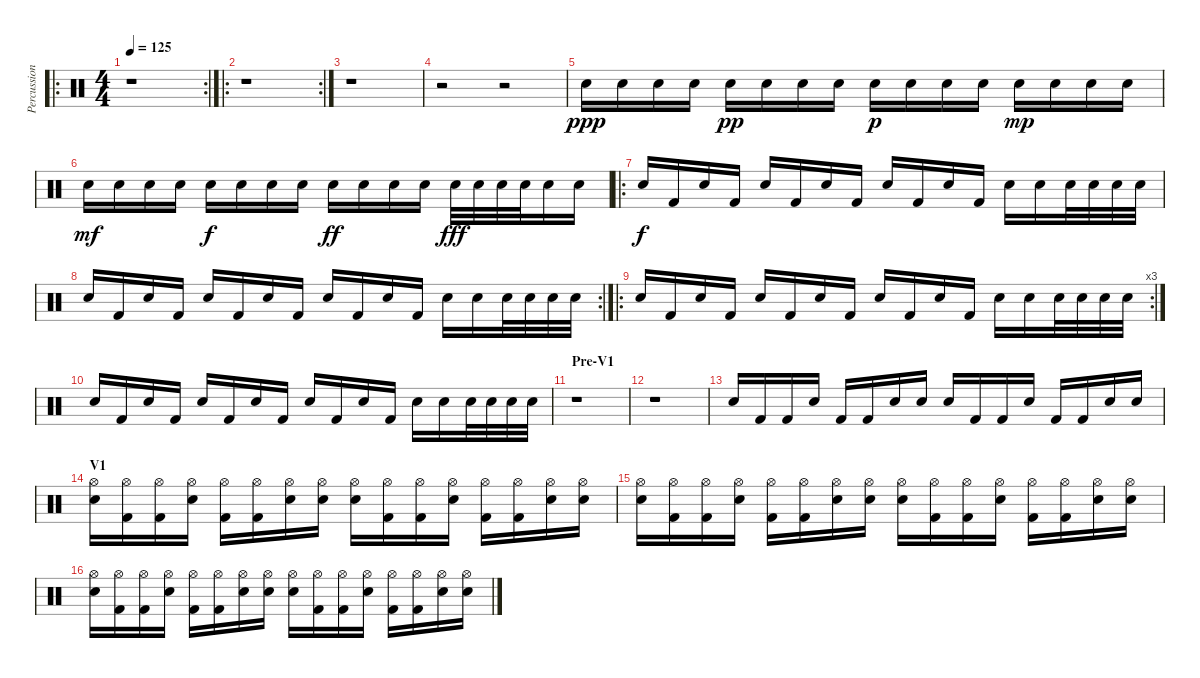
\track ("Percussion" "Percussion") {instrument percussion}
\staff {score}
\articulation defaults
\ro
\rc 2
\ts (4 4)
\tempo 125
\clef neutral
\ks c
r.1{dy ppp} |
\ro
\rc 2
r.1 |
r.1 |
r.2 r.2 |
"Snare (hit) 2".16 "Snare (hit) 2".16 "Snare (hit) 2".16 "Snare (hit) 2".16 "Snare (hit) 2".16{dy pp} "Snare (hit) 2".16 "Snare (hit) 2".16 "Snare (hit) 2".16 "Snare (hit) 2".16{dy p} "Snare (hit) 2".16 "Snare (hit) 2".16 "Snare (hit) 2".16 "Snare (hit) 2".16{dy mp} "Snare (hit) 2".16 "Snare (hit) 2".16 "Snare (hit) 2".16 |
"Snare (hit) 2".16{dy mf} "Snare (hit) 2".16 "Snare (hit) 2".16 "Snare (hit) 2".16 "Snare (hit) 2".16{dy f} "Snare (hit) 2".16 "Snare (hit) 2".16 "Snare (hit) 2".16 "Snare (hit) 2".16{dy ff} "Snare (hit) 2".16 "Snare (hit) 2".16 "Snare (hit) 2".16 "Snare (hit) 2".32{dy fff} "Snare (hit) 2".32 "Snare (hit) 2".32 "Snare (hit) 2".32 "Snare (hit) 2".16 "Snare (hit) 2".16 |
\ro "Snare (hit) 2".16{dy f} "Kick (hit) 2".16 "Snare (hit) 2".16 "Kick (hit) 2".16 "Snare (hit) 2".16 "Kick (hit) 2".16 "Snare (hit) 2".16 "Kick (hit) 2".16 "Snare (hit) 2".16 "Kick (hit) 2".16 "Snare (hit) 2".16 "Kick (hit) 2".16 "Snare (hit) 2".16 "Snare (hit) 2".16 "Snare (hit) 2".32 "Snare (hit) 2".32 "Snare (hit) 2".32 "Snare (hit) 2".32
|
\rc 2 "Snare (hit) 2".16 "Kick (hit) 2".16 "Snare (hit) 2".16 "Kick (hit) 2".16 "Snare (hit) 2".16 "Kick (hit) 2".16 "Snare (hit) 2".16 "Kick (hit) 2".16 "Snare (hit) 2".16 "Kick (hit) 2".16 "Snare (hit) 2".16 "Kick (hit) 2".16 "Snare (hit) 2".16 "Snare (hit) 2".16 "Snare (hit) 2".32 "Snare (hit) 2".32 "Snare (hit) 2".32 "Snare (hit) 2".32
|
\ro
\rc 3 "Snare (hit) 2".16 "Kick (hit) 2".16 "Snare (hit) 2".16 "Kick (hit) 2".16 "Snare (hit) 2".16 "Kick (hit) 2".16 "Snare (hit) 2".16 "Kick (hit) 2".16 "Snare (hit) 2".16 "Kick (hit) 2".16 "Snare (hit) 2".16 "Kick (hit) 2".16 "Snare (hit) 2".16 "Snare (hit) 2".16 "Snare (hit) 2".32 "Snare (hit) 2".32 "Snare (hit) 2".32 "Snare (hit) 2".32
|
"Snare (hit) 2".16 "Kick (hit) 2".16 "Snare (hit) 2".16 "Kick (hit) 2".16 "Snare (hit) 2".16 "Kick (hit) 2".16 "Snare (hit) 2".16 "Kick (hit) 2".16 "Snare (hit) 2".16 "Kick (hit) 2".16 "Snare (hit) 2".16 "Kick (hit) 2".16 "Snare (hit) 2".16 "Snare (hit) 2".16 "Snare (hit) 2".32 "Snare (hit) 2".32 "Snare (hit) 2".32 "Snare (hit) 2".32 |
\section ("" "Pre-V1")
r.1 |
r.1 |
"Snare (hit) 2".16 "Kick (hit) 2".16 "Kick (hit) 2".16 "Snare (hit) 2".16 "Kick (hit) 2".16 "Kick (hit) 2".16 "Snare (hit) 2".16 "Snare (hit) 2".16 "Snare (hit) 2".16 "Kick (hit) 2".16 "Kick (hit) 2".16 "Snare (hit) 2".16 "Kick (hit) 2".16 "Kick (hit) 2".16 "Snare (hit) 2".16 "Snare (hit) 2".16 |
\section ("" "V1")
("Hi-Hat (open)" "Snare (hit) 2").16 ("Hi-Hat (open)" "Kick (hit) 2").16 ("Hi-Hat (open)" "Kick (hit) 2").16 ("Hi-Hat (open)" "Snare (hit) 2").16 ("Hi-Hat (open)" "Kick (hit) 2").16 ("Hi-Hat (open)" "Kick (hit) 2").16 ("Hi-Hat (open)" "Snare (hit) 2").16 ("Hi-Hat (open)" "Snare (hit) 2").16 ("Hi-Hat (open)" "Snare (hit) 2").16 ("Hi-Hat (open)" "Kick (hit) 2").16 ("Hi-Hat (open)" "Kick (hit) 2").16 ("Hi-Hat (open)" "Snare (hit) 2").16 ("Hi-Hat (open)" "Kick (hit) 2").16 ("Hi-Hat (open)" "Kick (hit) 2").16 ("Hi-Hat (open)" "Snare (hit) 2").16 ("Hi-Hat (open)" "Snare (hit) 2").16 |
("Hi-Hat (open)" "Snare (hit) 2").16 ("Hi-Hat (open)" "Kick (hit) 2").16 ("Hi-Hat (open)" "Kick (hit) 2").16 ("Hi-Hat (open)" "Snare (hit) 2").16 ("Hi-Hat (open)" "Kick (hit) 2").16 ("Hi-Hat (open)" "Kick (hit) 2").16 ("Hi-Hat (open)" "Snare (hit) 2").16 ("Hi-Hat (open)" "Snare (hit) 2").16 ("Hi-Hat (open)" "Snare (hit) 2").16 ("Hi-Hat (open)" "Kick (hit) 2").16 ("Hi-Hat (open)" "Kick (hit) 2").16 ("Hi-Hat (open)" "Snare (hit) 2").16 ("Hi-Hat (open)" "Kick (hit) 2").16 ("Hi-Hat (open)" "Kick (hit) 2").16 ("Hi-Hat (open)" "Snare (hit) 2").16 ("Hi-Hat (open)" "Snare (hit) 2").16 |
("Hi-Hat (open)" "Snare (hit) 2").16 ("Hi-Hat (open)" "Kick (hit) 2").16 ("Hi-Hat (open)" "Kick (hit) 2").16 ("Hi-Hat (open)" "Snare (hit) 2").16 ("Hi-Hat (open)" "Kick (hit) 2").16 ("Hi-Hat (open)" "Kick (hit) 2").16 ("Hi-Hat (open)" "Snare (hit) 2").16 ("Hi-Hat (open)" "Snare (hit) 2").16 ("Hi-Hat (open)" "Snare (hit) 2").16 ("Hi-Hat (open)" "Kick (hit) 2").16 ("Hi-Hat (open)" "Kick (hit) 2").16 ("Hi-Hat (open)" "Snare (hit) 2").16 ("Hi-Hat (open)" "Kick (hit) 2").16 ("Hi-Hat (open)" "Kick (hit) 2").16 ("Hi-Hat (open)" "Snare (hit) 2").16 ("Hi-Hat (open)" "Snare (hit) 2").16
